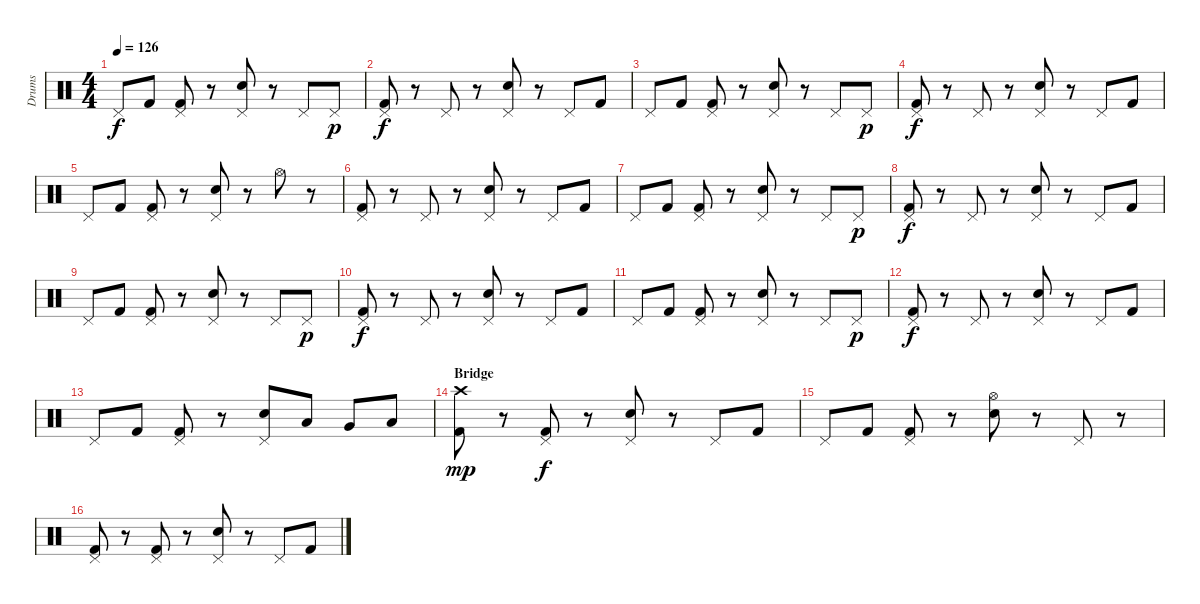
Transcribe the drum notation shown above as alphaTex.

\track ("Drums" "Drums") {instrument percussion}
\staff {score}
\articulation defaults
\ts (4 4)
\tempo 126
\clef neutral
\ks c "Pedal Hi-Hat (hit)".8{dy f} "Kick (hit) 2".8
("Pedal Hi-Hat (hit)" "Kick (hit) 2").8 r.8 ("Pedal Hi-Hat (hit)" "Electric Snare (hit)").8 r.8 "Pedal Hi-Hat (hit)".8 "Pedal Hi-Hat (hit)".8{dy p} |
("Pedal Hi-Hat (hit)" "Kick (hit) 2").8{dy f} r.8 "Pedal Hi-Hat (hit)".8 r.8 ("Pedal Hi-Hat (hit)" "Electric Snare (hit)").8 r.8 "Pedal Hi-Hat (hit)".8 "Kick (hit) 2".8 |
"Pedal Hi-Hat (hit)".8 "Kick (hit) 2".8 ("Pedal Hi-Hat (hit)" "Kick (hit) 2").8 r.8 ("Pedal Hi-Hat (hit)" "Electric Snare (hit)").8 r.8 "Pedal Hi-Hat (hit)".8 "Pedal Hi-Hat (hit)".8{dy p} |
("Pedal Hi-Hat (hit)" "Kick (hit) 2").8{dy f} r.8 "Pedal Hi-Hat (hit)".8 r.8 ("Pedal Hi-Hat (hit)" "Electric Snare (hit)").8 r.8 "Pedal Hi-Hat (hit)".8 "Kick (hit) 2".8 |
"Pedal Hi-Hat (hit)".8 "Kick (hit) 2".8 ("Pedal Hi-Hat (hit)" "Kick (hit) 2").8 r.8 ("Pedal Hi-Hat (hit)" "Electric Snare (hit)").8 r.8 "Hi-Hat (open)".8 r.8 |
("Pedal Hi-Hat (hit)" "Kick (hit) 2").8 r.8 "Pedal Hi-Hat (hit)".8 r.8 ("Pedal Hi-Hat (hit)" "Electric Snare (hit)").8 r.8 "Pedal Hi-Hat (hit)".8 "Kick (hit) 2".8 |
"Pedal Hi-Hat (hit)".8 "Kick (hit) 2".8 ("Pedal Hi-Hat (hit)" "Kick (hit) 2").8 r.8 ("Pedal Hi-Hat (hit)" "Electric Snare (hit)").8 r.8 "Pedal Hi-Hat (hit)".8 "Pedal Hi-Hat (hit)".8{dy p} |
("Pedal Hi-Hat (hit)" "Kick (hit) 2").8{dy f} r.8 "Pedal Hi-Hat (hit)".8 r.8 ("Pedal Hi-Hat (hit)" "Electric Snare (hit)").8 r.8 "Pedal Hi-Hat (hit)".8 "Kick (hit) 2".8 |
"Pedal Hi-Hat (hit)".8 "Kick (hit) 2".8 ("Pedal Hi-Hat (hit)" "Kick (hit) 2").8 r.8 ("Pedal Hi-Hat (hit)" "Electric Snare (hit)").8 r.8 "Pedal Hi-Hat (hit)".8 "Pedal Hi-Hat (hit)".8{dy p} |
("Pedal Hi-Hat (hit)" "Kick (hit) 2").8{dy f} r.8 "Pedal Hi-Hat (hit)".8 r.8 ("Pedal Hi-Hat (hit)" "Electric Snare (hit)").8 r.8 "Pedal Hi-Hat (hit)".8 "Kick (hit) 2".8 |
"Pedal Hi-Hat (hit)".8 "Kick (hit) 2".8 ("Pedal Hi-Hat (hit)" "Kick (hit) 2").8 r.8 ("Pedal Hi-Hat (hit)" "Electric Snare (hit)").8 r.8 "Pedal Hi-Hat (hit)".8 "Pedal Hi-Hat (hit)".8{dy p} |
("Pedal Hi-Hat (hit)" "Kick (hit) 2").8{dy f} r.8 "Pedal Hi-Hat (hit)".8 r.8 ("Pedal Hi-Hat (hit)" "Electric Snare (hit)").8 r.8 "Pedal Hi-Hat (hit)".8 "Kick (hit) 2".8 |
"Pedal Hi-Hat (hit)".8 "Kick (hit) 2".8 ("Pedal Hi-Hat (hit)" "Kick (hit) 2").8 r.8 ("Pedal Hi-Hat (hit)" "Electric Snare (hit)").8 "Low Tom (hit)".8 "Very Low Tom (hit)".8 "Low Floor Tom (hit)".8 |
\section ("" "Bridge")
("Crash high (hit)" "Kick (hit) 2").8{dy mp} r.8 ("Pedal Hi-Hat (hit)" "Kick (hit) 2").8{dy f} r.8 ("Pedal Hi-Hat (hit)" "Electric Snare (hit)").8 r.8 "Pedal Hi-Hat (hit)".8 "Kick (hit) 2".8 |
"Pedal Hi-Hat (hit)".8 "Kick (hit) 2".8 ("Pedal Hi-Hat (hit)" "Kick (hit) 2").8 r.8 ("Hi-Hat (open)" "Electric Snare (hit)").8 r.8 "Pedal Hi-Hat (hit)".8 r.8 |
("Pedal Hi-Hat (hit)" "Kick (hit) 2").8 r.8 ("Pedal Hi-Hat (hit)" "Kick (hit) 2").8 r.8 ("Pedal Hi-Hat (hit)" "Electric Snare (hit)").8 r.8 "Pedal Hi-Hat (hit)".8 "Kick (hit) 2".8
